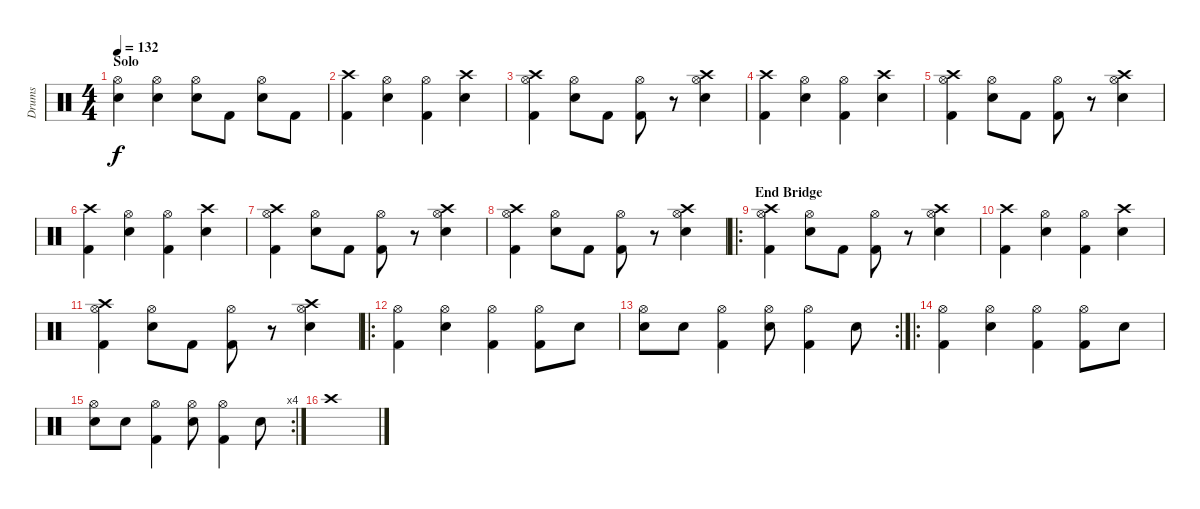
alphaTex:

\track ("Drums" "Drums") {instrument percussion}
\staff {score}
\articulation defaults
\ts (4 4)
\section ("" "Solo")
\tempo 132
\clef neutral
\ks c
("Hi-Hat (open)" "Snare (hit) 2").4{dy f} ("Hi-Hat (open)" "Snare (hit) 2").4 ("Hi-Hat (open)" "Snare (hit) 2").8 "Kick (hit) 2".8 ("Hi-Hat (open)" "Snare (hit) 2").8 "Kick (hit) 2".8 |
("Crash high (hit)" "Kick (hit) 2").4 ("Hi-Hat (open)" "Snare (hit) 2").4 ("Hi-Hat (open)" "Kick (hit) 2").4 ("Crash high (hit)" "Snare (hit) 2").4 |
("Hi-Hat (open)" "Crash high (hit)" "Kick (hit) 2").4 ("Hi-Hat (open)" "Snare (hit) 2").8 "Kick (hit) 2".8 ("Hi-Hat (open)" "Kick (hit) 2").8 r.8 ("Crash high (hit)" "Hi-Hat (open)" "Snare (hit) 2").4 |
("Crash high (hit)" "Kick (hit) 2").4 ("Hi-Hat (open)" "Snare (hit) 2").4 ("Hi-Hat (open)" "Kick (hit) 2").4 ("Crash high (hit)" "Snare (hit) 2").4 |
("Hi-Hat (open)" "Crash high (hit)" "Kick (hit) 2").4 ("Hi-Hat (open)" "Snare (hit) 2").8 "Kick (hit) 2".8 ("Hi-Hat (open)" "Kick (hit) 2").8 r.8 ("Crash high (hit)" "Hi-Hat (open)" "Snare (hit) 2").4 |
("Crash high (hit)" "Kick (hit) 2").4 ("Hi-Hat (open)" "Snare (hit) 2").4 ("Hi-Hat (open)" "Kick (hit) 2").4 ("Crash high (hit)" "Snare (hit) 2").4 |
("Hi-Hat (open)" "Crash high (hit)" "Kick (hit) 2").4 ("Hi-Hat (open)" "Snare (hit) 2").8 "Kick (hit) 2".8 ("Hi-Hat (open)" "Kick (hit) 2").8 r.8 ("Crash high (hit)" "Hi-Hat (open)" "Snare (hit) 2").4 |
("Hi-Hat (open)" "Crash high (hit)" "Kick (hit) 2").4 ("Hi-Hat (open)" "Snare (hit) 2").8 "Kick (hit) 2".8 ("Hi-Hat (open)" "Kick (hit) 2").8 r.8 ("Crash high (hit)" "Hi-Hat (open)" "Snare (hit) 2").4 |
\ro
\section ("" "End Bridge")
("Hi-Hat (open)" "Crash high (hit)" "Kick (hit) 2").4 ("Hi-Hat (open)" "Snare (hit) 2").8 "Kick (hit) 2".8 ("Hi-Hat (open)" "Kick (hit) 2").8 r.8 ("Crash high (hit)" "Hi-Hat (open)" "Snare (hit) 2").4 |
("Crash high (hit)" "Kick (hit) 2").4 ("Hi-Hat (open)" "Snare (hit) 2").4 ("Hi-Hat (open)" "Kick (hit) 2").4 ("Crash high (hit)" "Snare (hit) 2").4 |
("Hi-Hat (open)" "Crash high (hit)" "Kick (hit) 2").4 ("Hi-Hat (open)" "Snare (hit) 2").8 "Kick (hit) 2".8 ("Hi-Hat (open)" "Kick (hit) 2").8 r.8 ("Crash high (hit)" "Hi-Hat (open)" "Snare (hit) 2").4 |
\ro
("Hi-Hat (open)" "Kick (hit) 2").4 ("Hi-Hat (open)" "Snare (hit) 2").4 ("Hi-Hat (open)" "Kick (hit) 2").4 ("Hi-Hat (open)" "Kick (hit) 2").8 "Snare (hit) 2".8 |
\rc 2
("Snare (hit) 2" "Hi-Hat (open)").8 "Snare (hit) 2".8 ("Hi-Hat (open)" "Kick (hit) 2").4 ("Snare (hit) 2" "Hi-Hat (open)").8 ("Hi-Hat (open)" "Kick (hit) 2").4 "Snare (hit) 2".8 |
\ro
("Hi-Hat (open)" "Kick (hit) 2").4 ("Hi-Hat (open)" "Snare (hit) 2").4 ("Hi-Hat (open)" "Kick (hit) 2").4 ("Hi-Hat (open)" "Kick (hit) 2").8 "Snare (hit) 2".8 |
\rc 4
("Snare (hit) 2" "Hi-Hat (open)").8 "Snare (hit) 2".8 ("Hi-Hat (open)" "Kick (hit) 2").4 ("Snare (hit) 2" "Hi-Hat (open)").8 ("Hi-Hat (open)" "Kick (hit) 2").4 "Snare (hit) 2".8 |
"Crash high (hit)".1
